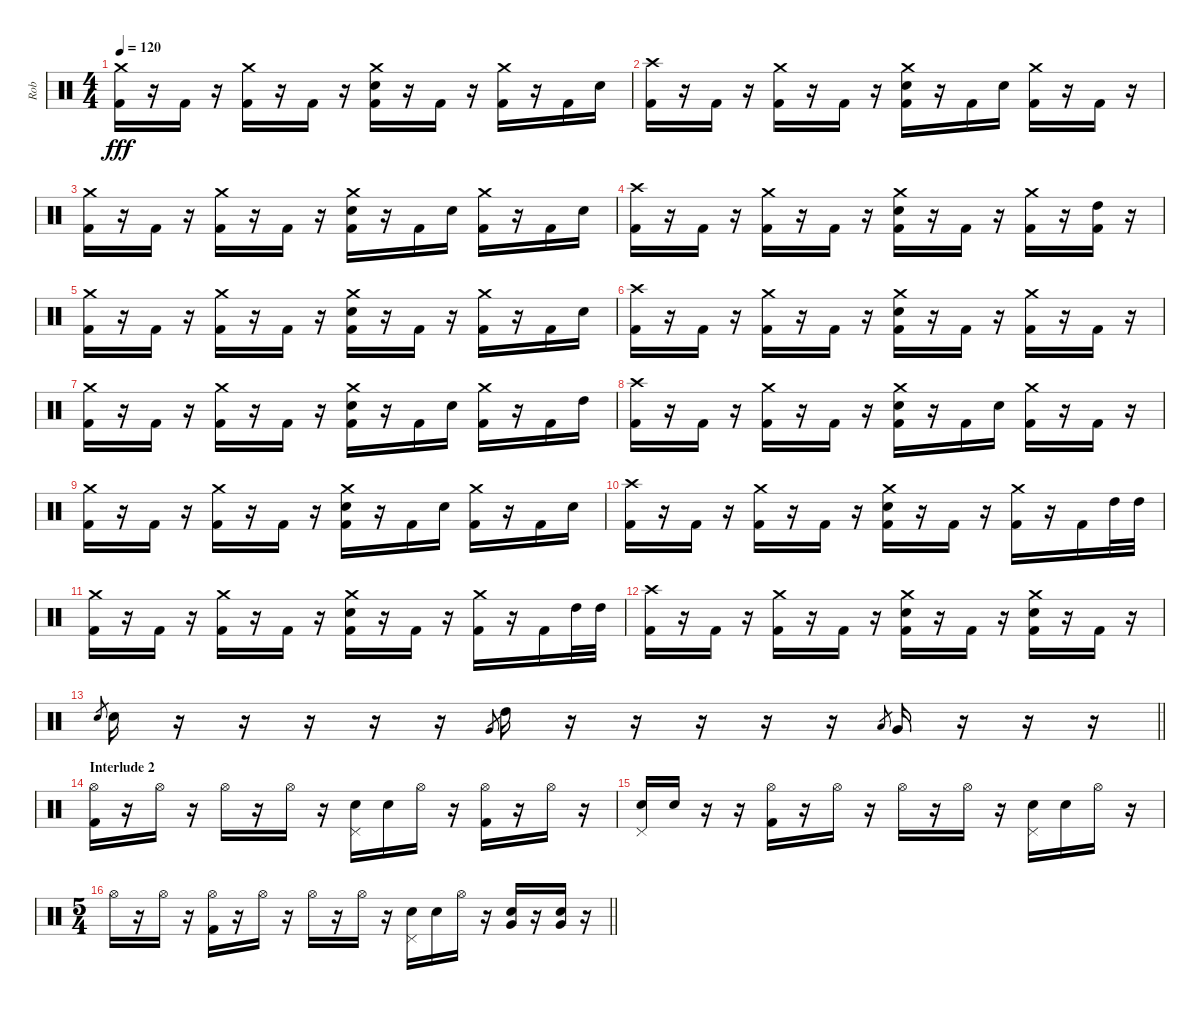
\track ("Rob" "Rob") {instrument percussion}
\staff {score}
\articulation defaults
\ts (4 4)
\tempo 120
\clef neutral
\ks c
("Crash medium (hit)" "Kick (hit) 2").16{dy fff} r.16 "Kick (hit) 2".16 r.16 ("Crash medium (hit)" "Kick (hit) 2").16 r.16 "Kick (hit) 2".16 r.16 ("Crash medium (hit)" "Electric Snare (hit)" "Kick (hit) 2").16 r.16 "Kick (hit) 2".16 r.16 ("Crash medium (hit)" "Kick (hit) 2").16 r.16 "Kick (hit) 2".16 "Electric Snare (hit)".16 |
("Crash high (hit)" "Kick (hit) 2").16 r.16 "Kick (hit) 2".16 r.16 ("Crash medium (hit)" "Kick (hit) 2").16 r.16 "Kick (hit) 2".16 r.16 ("Crash medium (hit)" "Electric Snare (hit)" "Kick (hit) 2").16 r.16 "Kick (hit) 2".16 "Electric Snare (hit)".16 ("Crash medium (hit)" "Kick (hit) 2").16 r.16 "Kick (hit) 2".16 r.16 |
("Crash medium (hit)" "Kick (hit) 2").16 r.16 "Kick (hit) 2".16 r.16 ("Crash medium (hit)" "Kick (hit) 2").16 r.16 "Kick (hit) 2".16 r.16 ("Crash medium (hit)" "Electric Snare (hit)" "Kick (hit) 2").16 r.16 "Kick (hit) 2".16 "Electric Snare (hit)".16 ("Crash medium (hit)" "Kick (hit) 2").16 r.16 "Kick (hit) 2".16 "Electric Snare (hit)".16 |
("Crash high (hit)" "Kick (hit) 2").16 r.16 "Kick (hit) 2".16 r.16 ("Crash medium (hit)" "Kick (hit) 2").16 r.16 "Kick (hit) 2".16 r.16 ("Crash medium (hit)" "Electric Snare (hit)" "Kick (hit) 2").16 r.16 "Kick (hit) 2".16 r.16 ("Crash medium (hit)" "Kick (hit) 2").16 r.16 ("High Tom (hit)" "Kick (hit) 2").16 r.16 |
("Crash medium (hit)" "Kick (hit) 2").16 r.16 "Kick (hit) 2".16 r.16 ("Crash medium (hit)" "Kick (hit) 2").16 r.16 "Kick (hit) 2".16 r.16 ("Crash medium (hit)" "Electric Snare (hit)" "Kick (hit) 2").16 r.16 "Kick (hit) 2".16 r.16 ("Crash medium (hit)" "Kick (hit) 2").16 r.16 "Kick (hit) 2".16 "Electric Snare (hit)".16 |
("Crash high (hit)" "Kick (hit) 2").16 r.16 "Kick (hit) 2".16 r.16 ("Crash medium (hit)" "Kick (hit) 2").16 r.16 "Kick (hit) 2".16 r.16 ("Crash medium (hit)" "Electric Snare (hit)" "Kick (hit) 2").16 r.16 "Kick (hit) 2".16 r.16 ("Crash medium (hit)" "Kick (hit) 2").16 r.16 "Kick (hit) 2".16 r.16 |
("Crash medium (hit)" "Kick (hit) 2").16 r.16 "Kick (hit) 2".16 r.16 ("Crash medium (hit)" "Kick (hit) 2").16 r.16 "Kick (hit) 2".16 r.16 ("Crash medium (hit)" "Electric Snare (hit)" "Kick (hit) 2").16 r.16 "Kick (hit) 2".16 "Electric Snare (hit)".16 ("Crash medium (hit)" "Kick (hit) 2").16 r.16 "Kick (hit) 2".16 "High Tom (hit)".16 |
("Crash high (hit)" "Kick (hit) 2").16 r.16 "Kick (hit) 2".16 r.16 ("Crash medium (hit)" "Kick (hit) 2").16 r.16 "Kick (hit) 2".16 r.16 ("Crash medium (hit)" "Electric Snare (hit)" "Kick (hit) 2").16 r.16 "Kick (hit) 2".16 "Electric Snare (hit)".16 ("Crash medium (hit)" "Kick (hit) 2").16 r.16 "Kick (hit) 2".16 r.16 |
("Crash medium (hit)" "Kick (hit) 2").16 r.16 "Kick (hit) 2".16 r.16 ("Crash medium (hit)" "Kick (hit) 2").16 r.16 "Kick (hit) 2".16 r.16 ("Crash medium (hit)" "Electric Snare (hit)" "Kick (hit) 2").16 r.16 "Kick (hit) 2".16 "Electric Snare (hit)".16 ("Crash medium (hit)" "Kick (hit) 2").16 r.16 "Kick (hit) 2".16 "Electric Snare (hit)".16 |
("Crash high (hit)" "Kick (hit) 2").16 r.16 "Kick (hit) 2".16 r.16 ("Crash medium (hit)" "Kick (hit) 2").16 r.16 "Kick (hit) 2".16 r.16 ("Crash medium (hit)" "Electric Snare (hit)" "Kick (hit) 2").16 r.16 "Kick (hit) 2".16 r.16 ("Crash medium (hit)" "Kick (hit) 2").16 r.16 "Kick (hit) 2".16 "High Tom (hit)".32 "High Tom (hit)".32 |
("Crash medium (hit)" "Kick (hit) 2").16 r.16 "Kick (hit) 2".16 r.16 ("Crash medium (hit)" "Kick (hit) 2").16 r.16 "Kick (hit) 2".16 r.16 ("Crash medium (hit)" "Electric Snare (hit)" "Kick (hit) 2").16 r.16 "Kick (hit) 2".16 r.16 ("Crash medium (hit)" "Kick (hit) 2").16 r.16 "Kick (hit) 2".16 "High Tom (hit)".32 "High Tom (hit)".32 |
("Crash high (hit)" "Kick (hit) 2").16 r.16 "Kick (hit) 2".16 r.16 ("Crash medium (hit)" "Kick (hit) 2").16 r.16 "Kick (hit) 2".16 r.16 ("Crash medium (hit)" "Electric Snare (hit)" "Kick (hit) 2").16 r.16 "Kick (hit) 2".16 r.16 ("Crash medium (hit)" "Electric Snare (hit)" "Kick (hit) 2").16 r.16 "Kick (hit) 2".16 r.16 |
\barLineRight lightlight "Electric Snare (hit)".8{gr} "Electric Snare (hit)".16
r.16 r.16 r.16 r.16 r.16 "Very Low Tom (hit)".8{gr} "High Tom (hit)".16 r.16 r.16 r.16 r.16 r.16 "Low Floor Tom (hit)".8{gr} "Very Low Tom (hit)".16 r.16 r.16 r.16 |
\section ("" "Interlude 2")
("Hi-Hat (open)" "Kick (hit) 2").16 r.16 "Hi-Hat (open)".16 r.16 "Hi-Hat (open)".16 r.16 "Hi-Hat (open)".16 r.16 ("Pedal Hi-Hat (hit)" "Electric Snare (hit)").16 "Electric Snare (hit)".16 "Hi-Hat (open)".16 r.16 ("Hi-Hat (open)" "Kick (hit) 2").16 r.16 "Hi-Hat (open)".16 r.16 |
("Pedal Hi-Hat (hit)" "Electric Snare (hit)").16 "Electric Snare (hit)".16 r.16 r.16 ("Hi-Hat (open)" "Kick (hit) 2").16 r.16 "Hi-Hat (open)".16 r.16 "Hi-Hat (open)".16 r.16 "Hi-Hat (open)".16 r.16 ("Pedal Hi-Hat (hit)" "Electric Snare (hit)").16 "Electric Snare (hit)".16 "Hi-Hat (open)".16 r.16 |
\ts (5 4)
\barLineRight lightlight "Hi-Hat (open)".16
r.16 "Hi-Hat (open)".16 r.16 ("Hi-Hat (open)" "Kick (hit) 2").16 r.16 "Hi-Hat (open)".16 r.16 "Hi-Hat (open)".16 r.16 "Hi-Hat (open)".16 r.16 ("Pedal Hi-Hat (hit)" "Electric Snare (hit)").16 "Electric Snare (hit)".16 "Hi-Hat (open)".16 r.16 ("Electric Snare (hit)" "Very Low Tom (hit)").16 r.16 ("Electric Snare (hit)" "Very Low Tom (hit)").16 r.16
